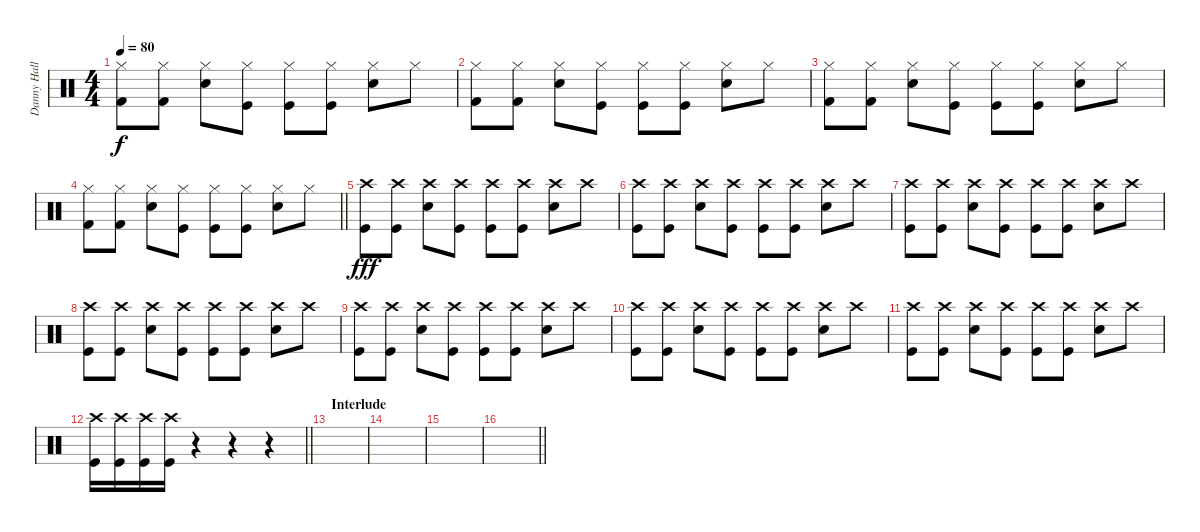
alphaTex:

\track ("Danny Hall" "Danny Hall") {instrument percussion}
\staff {score}
\articulation defaults
\ts (4 4)
\tempo 80
\clef neutral
\ks c
("Hi-Hat (closed)" "Kick (hit) 2").8{dy f} ("Hi-Hat (closed)" "Kick (hit) 2").8 ("Hi-Hat (closed)" "Electric Snare (hit)").8 ("Hi-Hat (closed)" "Kick (hit)").8 ("Hi-Hat (closed)" "Kick (hit)").8 ("Hi-Hat (closed)" "Kick (hit)").8 ("Hi-Hat (closed)" "Electric Snare (hit)").8 "Hi-Hat (closed)".8 |
("Hi-Hat (closed)" "Kick (hit) 2").8 ("Hi-Hat (closed)" "Kick (hit) 2").8 ("Hi-Hat (closed)" "Electric Snare (hit)").8 ("Hi-Hat (closed)" "Kick (hit)").8 ("Hi-Hat (closed)" "Kick (hit)").8 ("Hi-Hat (closed)" "Kick (hit)").8 ("Hi-Hat (closed)" "Electric Snare (hit)").8 "Hi-Hat (closed)".8 |
("Hi-Hat (closed)" "Kick (hit) 2").8 ("Hi-Hat (closed)" "Kick (hit) 2").8 ("Hi-Hat (closed)" "Electric Snare (hit)").8 ("Hi-Hat (closed)" "Kick (hit)").8 ("Hi-Hat (closed)" "Kick (hit)").8 ("Hi-Hat (closed)" "Kick (hit)").8 ("Hi-Hat (closed)" "Electric Snare (hit)").8 "Hi-Hat (closed)".8 |
\barLineRight lightlight
("Hi-Hat (closed)" "Kick (hit) 2").8 ("Hi-Hat (closed)" "Kick (hit) 2").8 ("Hi-Hat (closed)" "Electric Snare (hit)").8 ("Hi-Hat (closed)" "Kick (hit)").8 ("Hi-Hat (closed)" "Kick (hit)").8 ("Hi-Hat (closed)" "Kick (hit)").8 ("Hi-Hat (closed)" "Electric Snare (hit)").8 "Hi-Hat (closed)".8 |
("Crash high (hit)" "Kick (hit)").8{dy fff} ("Crash high (hit)" "Kick (hit)").8 ("Crash high (hit)" "Snare (hit) 2").8 ("Crash high (hit)" "Kick (hit)").8 ("Crash high (hit)" "Kick (hit)").8 ("Crash high (hit)" "Kick (hit)").8 ("Crash high (hit)" "Snare (hit) 2").8 "Crash high (hit)".8 |
("Crash high (hit)" "Kick (hit)").8 ("Crash high (hit)" "Kick (hit)").8 ("Crash high (hit)" "Snare (hit) 2").8 ("Crash high (hit)" "Kick (hit)").8 ("Crash high (hit)" "Kick (hit)").8 ("Crash high (hit)" "Kick (hit)").8 ("Crash high (hit)" "Snare (hit) 2").8 "Crash high (hit)".8 |
("Crash high (hit)" "Kick (hit)").8 ("Crash high (hit)" "Kick (hit)").8 ("Crash high (hit)" "Snare (hit) 2").8 ("Crash high (hit)" "Kick (hit)").8 ("Crash high (hit)" "Kick (hit)").8 ("Crash high (hit)" "Kick (hit)").8 ("Crash high (hit)" "Snare (hit) 2").8 "Crash high (hit)".8 |
("Crash high (hit)" "Kick (hit)").8 ("Crash high (hit)" "Kick (hit)").8 ("Crash high (hit)" "Snare (hit) 2").8 ("Crash high (hit)" "Kick (hit)").8 ("Crash high (hit)" "Kick (hit)").8 ("Crash high (hit)" "Kick (hit)").8 ("Crash high (hit)" "Snare (hit) 2").8 "Crash high (hit)".8 |
("Crash high (hit)" "Kick (hit)").8 ("Crash high (hit)" "Kick (hit)").8 ("Crash high (hit)" "Snare (hit) 2").8 ("Crash high (hit)" "Kick (hit)").8 ("Crash high (hit)" "Kick (hit)").8 ("Crash high (hit)" "Kick (hit)").8 ("Crash high (hit)" "Snare (hit) 2").8 "Crash high (hit)".8 |
("Crash high (hit)" "Kick (hit)").8 ("Crash high (hit)" "Kick (hit)").8 ("Crash high (hit)" "Snare (hit) 2").8 ("Crash high (hit)" "Kick (hit)").8 ("Crash high (hit)" "Kick (hit)").8 ("Crash high (hit)" "Kick (hit)").8 ("Crash high (hit)" "Snare (hit) 2").8 "Crash high (hit)".8 |
("Crash high (hit)" "Kick (hit)").8 ("Crash high (hit)" "Kick (hit)").8 ("Crash high (hit)" "Snare (hit) 2").8 ("Crash high (hit)" "Kick (hit)").8 ("Crash high (hit)" "Kick (hit)").8 ("Crash high (hit)" "Kick (hit)").8 ("Crash high (hit)" "Snare (hit) 2").8 "Crash high (hit)".8 |
\barLineRight lightlight
("Crash high (hit)" "Kick (hit)").16 ("Crash high (hit)" "Kick (hit)").16 ("Crash high (hit)" "Kick (hit)").16 ("Crash high (hit)" "Kick (hit)").16 r.4 r.4 r.4 |
\section ("" "Interlude")
|
|
|
\barLineRight lightlight
